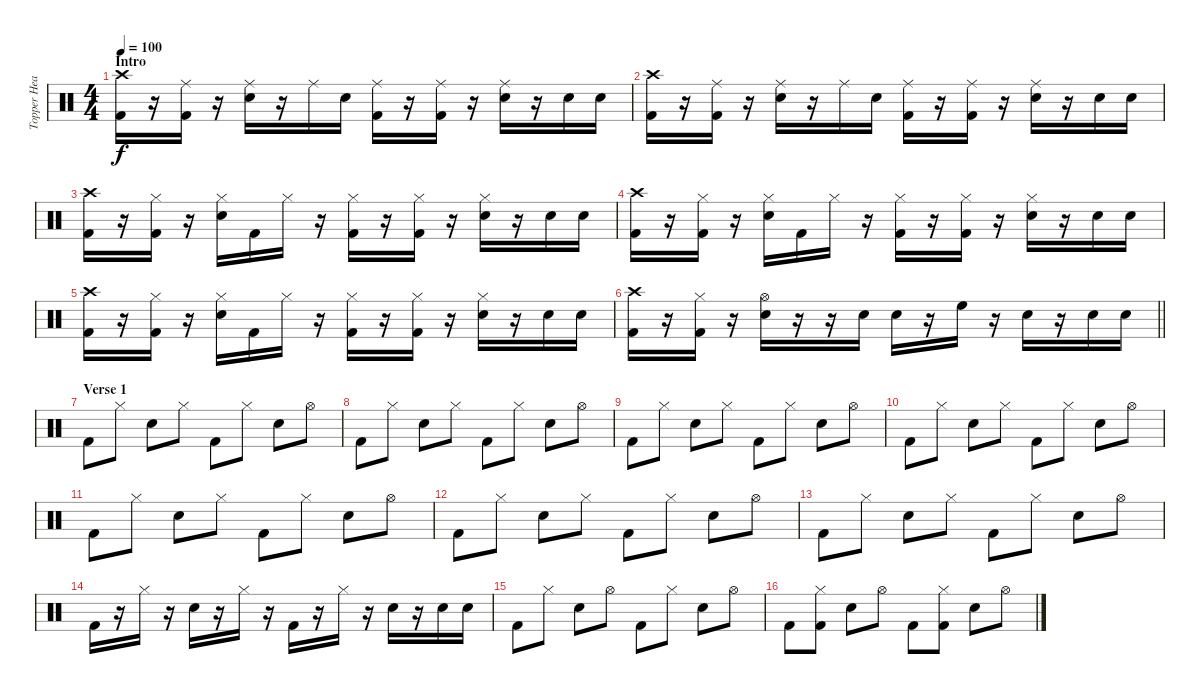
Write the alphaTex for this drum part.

\track ("Topper Headon" "Topper Hea") {instrument percussion}
\staff {score}
\articulation defaults
\ts (4 4)
\section ("" "Intro")
\tempo 100
\clef neutral
\ks c
("Crash high (hit)" "Kick (hit) 2").16{dy f} r.16 ("Ride (middle)" "Kick (hit) 2").16 r.16 ("Ride (middle)" "Snare (hit) 2").16 r.16 "Ride (middle)".16 "Snare (hit) 2".16 ("Ride (middle)" "Kick (hit) 2").16 r.16 ("Ride (middle)" "Kick (hit) 2").16 r.16 ("Ride (middle)" "Snare (hit) 2").16 r.16 "Snare (hit) 2".16 "Snare (hit) 2".16 |
("Crash high (hit)" "Kick (hit) 2").16 r.16 ("Ride (middle)" "Kick (hit) 2").16 r.16 ("Ride (middle)" "Snare (hit) 2").16 r.16 "Ride (middle)".16 "Snare (hit) 2".16 ("Ride (middle)" "Kick (hit) 2").16 r.16 ("Ride (middle)" "Kick (hit) 2").16 r.16 ("Ride (middle)" "Snare (hit) 2").16 r.16 "Snare (hit) 2".16 "Snare (hit) 2".16 |
("Crash high (hit)" "Kick (hit) 2").16 r.16 ("Hi-Hat (closed)" "Kick (hit) 2").16 r.16 ("Hi-Hat (closed)" "Snare (hit) 2").16 "Kick (hit) 2".16 "Hi-Hat (closed)".16 r.16 ("Hi-Hat (closed)" "Kick (hit) 2").16 r.16 ("Hi-Hat (closed)" "Kick (hit) 2").16 r.16 ("Hi-Hat (closed)" "Snare (hit) 2").16 r.16 "Snare (hit) 2".16 "Snare (hit) 2".16 |
("Crash high (hit)" "Kick (hit) 2").16 r.16 ("Hi-Hat (closed)" "Kick (hit) 2").16 r.16 ("Hi-Hat (closed)" "Snare (hit) 2").16 "Kick (hit) 2".16 "Hi-Hat (closed)".16 r.16 ("Hi-Hat (closed)" "Kick (hit) 2").16 r.16 ("Hi-Hat (closed)" "Kick (hit) 2").16 r.16 ("Hi-Hat (closed)" "Snare (hit) 2").16 r.16 "Snare (hit) 2".16 "Snare (hit) 2".16 |
("Crash high (hit)" "Kick (hit) 2").16 r.16 ("Hi-Hat (closed)" "Kick (hit) 2").16 r.16 ("Hi-Hat (closed)" "Snare (hit) 2").16 "Kick (hit) 2".16 "Hi-Hat (closed)".16 r.16 ("Hi-Hat (closed)" "Kick (hit) 2").16 r.16 ("Hi-Hat (closed)" "Kick (hit) 2").16 r.16 ("Hi-Hat (closed)" "Snare (hit) 2").16 r.16 "Snare (hit) 2".16 "Snare (hit) 2".16 |
\barLineRight lightlight
("Crash high (hit)" "Kick (hit) 2").16 r.16 ("Hi-Hat (closed)" "Kick (hit) 2").16 r.16 ("Hi-Hat (open)" "Snare (hit) 2").16 r.16 r.16 "Snare (hit) 2".16 "Snare (hit) 2".16 r.16 "High Floor Tom (hit)".16 r.16 "Snare (hit) 2".16 r.16 "Snare (hit) 2".16 "Snare (hit) 2".16 |
\section ("" "Verse 1")
"Kick (hit) 2".8 "Hi-Hat (closed)".8 "Snare (hit) 2".8 "Hi-Hat (closed)".8 "Kick (hit) 2".8 "Hi-Hat (closed)".8 "Snare (hit) 2".8 "Hi-Hat (open)".8 |
"Kick (hit) 2".8 "Hi-Hat (closed)".8 "Snare (hit) 2".8 "Hi-Hat (closed)".8 "Kick (hit) 2".8 "Hi-Hat (closed)".8 "Snare (hit) 2".8 "Hi-Hat (open)".8 |
"Kick (hit) 2".8 "Hi-Hat (closed)".8 "Snare (hit) 2".8 "Hi-Hat (closed)".8 "Kick (hit) 2".8 "Hi-Hat (closed)".8 "Snare (hit) 2".8 "Hi-Hat (open)".8 |
"Kick (hit) 2".8 "Hi-Hat (closed)".8 "Snare (hit) 2".8 "Hi-Hat (closed)".8 "Kick (hit) 2".8 "Hi-Hat (closed)".8 "Snare (hit) 2".8 "Hi-Hat (open)".8 |
"Kick (hit) 2".8 "Hi-Hat (closed)".8 "Snare (hit) 2".8 "Hi-Hat (closed)".8 "Kick (hit) 2".8 "Hi-Hat (closed)".8 "Snare (hit) 2".8 "Hi-Hat (open)".8 |
"Kick (hit) 2".8 "Hi-Hat (closed)".8 "Snare (hit) 2".8 "Hi-Hat (closed)".8 "Kick (hit) 2".8 "Hi-Hat (closed)".8 "Snare (hit) 2".8 "Hi-Hat (open)".8 |
"Kick (hit) 2".8 "Hi-Hat (closed)".8 "Snare (hit) 2".8 "Hi-Hat (closed)".8 "Kick (hit) 2".8 "Hi-Hat (closed)".8 "Snare (hit) 2".8 "Hi-Hat (open)".8 |
"Kick (hit) 2".16 r.16 "Hi-Hat (closed)".16 r.16 "Snare (hit) 2".16 r.16 "Hi-Hat (closed)".16 r.16 "Kick (hit) 2".16 r.16 "Hi-Hat (closed)".16 r.16 "Snare (hit) 2".16 r.16 "Snare (hit) 2".16 "Snare (hit) 2".16 |
"Kick (hit) 2".8 "Hi-Hat (closed)".8 "Snare (hit) 2".8 "Hi-Hat (open)".8 "Kick (hit) 2".8 "Hi-Hat (closed)".8 "Snare (hit) 2".8 "Hi-Hat (open)".8 |
"Kick (hit) 2".8 ("Hi-Hat (closed)" "Kick (hit) 2").8 "Snare (hit) 2".8 "Hi-Hat (open)".8 "Kick (hit) 2".8 ("Hi-Hat (closed)" "Kick (hit) 2").8 "Snare (hit) 2".8 "Hi-Hat (open)".8
